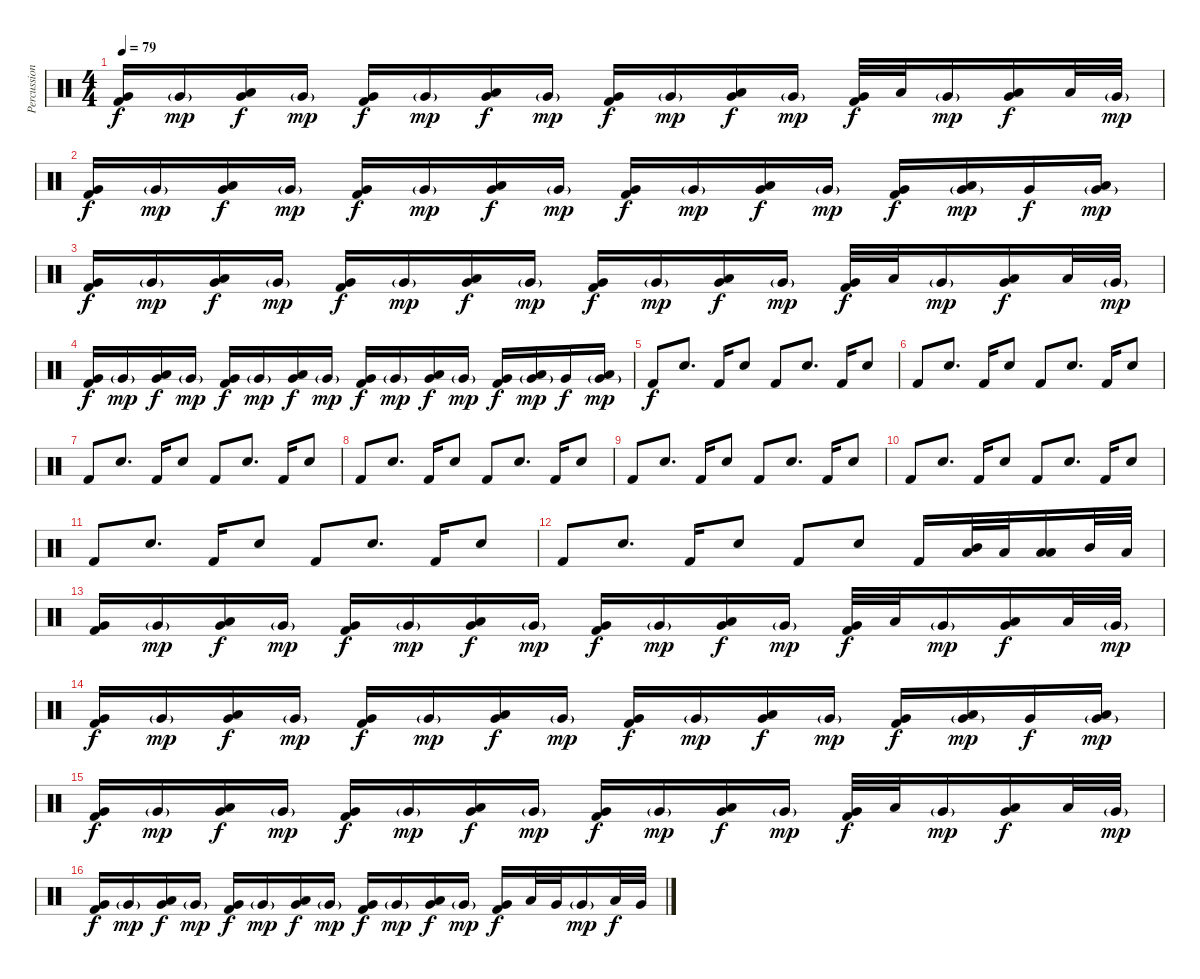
\track ("Percussion" "Percussion") {instrument percussion}
\staff {score}
\articulation defaults
\ts (4 4)
\tempo 79
\clef neutral
\ks c
("Very Low Tom (hit)" "Kick (hit) 2").16{dy f} "Very Low Tom (hit)"{g}.16{dy mp} ("Low Tom (hit)" "Very Low Tom (hit)").16{dy f} "Very Low Tom (hit)"{g}.16{dy mp} ("Very Low Tom (hit)" "Kick (hit) 2").16{dy f} "Very Low Tom (hit)"{g}.16{dy mp} ("Low Tom (hit)" "Very Low Tom (hit)").16{dy f} "Very Low Tom (hit)"{g}.16{dy mp} ("Very Low Tom (hit)" "Kick (hit) 2").16{dy f} "Very Low Tom (hit)"{g}.16{dy mp} ("Low Tom (hit)" "Very Low Tom (hit)").16{dy f} "Very Low Tom (hit)"{g}.16{dy mp} ("Very Low Tom (hit)" "Kick (hit) 2").32{dy f} "Low Tom (hit)".32 "Very Low Tom (hit)"{g}.16{dy mp} ("Low Tom (hit)" "Very Low Tom (hit)").16{dy f} "Low Tom (hit)".32 "Very Low Tom (hit)"{g}.32{dy mp} |
("Very Low Tom (hit)" "Kick (hit) 2").16{dy f} "Very Low Tom (hit)"{g}.16{dy mp} ("Low Tom (hit)" "Very Low Tom (hit)").16{dy f} "Very Low Tom (hit)"{g}.16{dy mp} ("Very Low Tom (hit)" "Kick (hit) 2").16{dy f} "Very Low Tom (hit)"{g}.16{dy mp} ("Low Tom (hit)" "Very Low Tom (hit)").16{dy f} "Very Low Tom (hit)"{g}.16{dy mp} ("Very Low Tom (hit)" "Kick (hit) 2").16{dy f} "Very Low Tom (hit)"{g}.16{dy mp} ("Low Tom (hit)" "Very Low Tom (hit)").16{dy f} "Very Low Tom (hit)"{g}.16{dy mp} ("Very Low Tom (hit)" "Kick (hit) 2").16{dy f} ("Low Tom (hit)" "Very Low Tom (hit)"{g}).16{dy mp} "Very Low Tom (hit)".16{dy f} ("Low Tom (hit)" "Very Low Tom (hit)"{g}).16{dy mp} |
("Very Low Tom (hit)" "Kick (hit) 2").16{dy f} "Very Low Tom (hit)"{g}.16{dy mp} ("Low Tom (hit)" "Very Low Tom (hit)").16{dy f} "Very Low Tom (hit)"{g}.16{dy mp} ("Very Low Tom (hit)" "Kick (hit) 2").16{dy f} "Very Low Tom (hit)"{g}.16{dy mp} ("Low Tom (hit)" "Very Low Tom (hit)").16{dy f} "Very Low Tom (hit)"{g}.16{dy mp} ("Very Low Tom (hit)" "Kick (hit) 2").16{dy f} "Very Low Tom (hit)"{g}.16{dy mp} ("Low Tom (hit)" "Very Low Tom (hit)").16{dy f} "Very Low Tom (hit)"{g}.16{dy mp} ("Very Low Tom (hit)" "Kick (hit) 2").32{dy f} "Low Tom (hit)".32 "Very Low Tom (hit)"{g}.16{dy mp} ("Low Tom (hit)" "Very Low Tom (hit)").16{dy f} "Low Tom (hit)".32 "Very Low Tom (hit)"{g}.32{dy mp} |
("Very Low Tom (hit)" "Kick (hit) 2").16{dy f} "Very Low Tom (hit)"{g}.16{dy mp} ("Low Tom (hit)" "Very Low Tom (hit)").16{dy f} "Very Low Tom (hit)"{g}.16{dy mp} ("Very Low Tom (hit)" "Kick (hit) 2").16{dy f} "Very Low Tom (hit)"{g}.16{dy mp} ("Low Tom (hit)" "Very Low Tom (hit)").16{dy f} "Very Low Tom (hit)"{g}.16{dy mp} ("Very Low Tom (hit)" "Kick (hit) 2").16{dy f} "Very Low Tom (hit)"{g}.16{dy mp} ("Low Tom (hit)" "Very Low Tom (hit)").16{dy f} "Very Low Tom (hit)"{g}.16{dy mp} ("Very Low Tom (hit)" "Kick (hit) 2").16{dy f} ("Low Tom (hit)" "Very Low Tom (hit)"{g}).16{dy mp} "Very Low Tom (hit)".16{dy f} ("Low Tom (hit)" "Very Low Tom (hit)"{g}).16{dy mp} |
"Kick (hit) 2".8{dy f} "Snare (hit) 2".8{d} "Kick (hit) 2".16 "Snare (hit) 2".8 "Kick (hit) 2".8 "Snare (hit) 2".8{d} "Kick (hit) 2".16 "Snare (hit) 2".8 |
"Kick (hit) 2".8 "Snare (hit) 2".8{d} "Kick (hit) 2".16 "Snare (hit) 2".8 "Kick (hit) 2".8 "Snare (hit) 2".8{d} "Kick (hit) 2".16 "Snare (hit) 2".8 |
"Kick (hit) 2".8 "Snare (hit) 2".8{d} "Kick (hit) 2".16 "Snare (hit) 2".8 "Kick (hit) 2".8 "Snare (hit) 2".8{d} "Kick (hit) 2".16 "Snare (hit) 2".8 |
"Kick (hit) 2".8 "Snare (hit) 2".8{d} "Kick (hit) 2".16 "Snare (hit) 2".8 "Kick (hit) 2".8 "Snare (hit) 2".8{d} "Kick (hit) 2".16 "Snare (hit) 2".8 |
"Kick (hit) 2".8 "Snare (hit) 2".8{d} "Kick (hit) 2".16 "Snare (hit) 2".8 "Kick (hit) 2".8 "Snare (hit) 2".8{d} "Kick (hit) 2".16 "Snare (hit) 2".8 |
"Kick (hit) 2".8 "Snare (hit) 2".8{d} "Kick (hit) 2".16 "Snare (hit) 2".8 "Kick (hit) 2".8 "Snare (hit) 2".8{d} "Kick (hit) 2".16 "Snare (hit) 2".8 |
"Kick (hit) 2".8 "Snare (hit) 2".8{d} "Kick (hit) 2".16 "Snare (hit) 2".8 "Kick (hit) 2".8 "Snare (hit) 2".8{d} "Kick (hit) 2".16 "Snare (hit) 2".8 |
"Kick (hit) 2".8 "Snare (hit) 2".8{d} "Kick (hit) 2".16 "Snare (hit) 2".8 "Kick (hit) 2".8 "Snare (hit) 2".8 "Kick (hit) 2".16 ("Mid Tom (hit)" "Low Tom (hit)").32 "Low Tom (hit)".32 ("Low Tom (hit)" "Low Tom (hit)").16 "Mid Tom (hit)".32 "Low Tom (hit)".32 |
("Very Low Tom (hit)" "Kick (hit) 2").16 "Very Low Tom (hit)"{g}.16{dy mp} ("Low Tom (hit)" "Very Low Tom (hit)").16{dy f} "Very Low Tom (hit)"{g}.16{dy mp} ("Very Low Tom (hit)" "Kick (hit) 2").16{dy f} "Very Low Tom (hit)"{g}.16{dy mp} ("Low Tom (hit)" "Very Low Tom (hit)").16{dy f} "Very Low Tom (hit)"{g}.16{dy mp} ("Very Low Tom (hit)" "Kick (hit) 2").16{dy f} "Very Low Tom (hit)"{g}.16{dy mp} ("Low Tom (hit)" "Very Low Tom (hit)").16{dy f} "Very Low Tom (hit)"{g}.16{dy mp} ("Very Low Tom (hit)" "Kick (hit) 2").32{dy f} "Low Tom (hit)".32 "Very Low Tom (hit)"{g}.16{dy mp} ("Low Tom (hit)" "Very Low Tom (hit)").16{dy f} "Low Tom (hit)".32 "Very Low Tom (hit)"{g}.32{dy mp} |
("Very Low Tom (hit)" "Kick (hit) 2").16{dy f} "Very Low Tom (hit)"{g}.16{dy mp} ("Low Tom (hit)" "Very Low Tom (hit)").16{dy f} "Very Low Tom (hit)"{g}.16{dy mp} ("Very Low Tom (hit)" "Kick (hit) 2").16{dy f} "Very Low Tom (hit)"{g}.16{dy mp} ("Low Tom (hit)" "Very Low Tom (hit)").16{dy f} "Very Low Tom (hit)"{g}.16{dy mp} ("Very Low Tom (hit)" "Kick (hit) 2").16{dy f} "Very Low Tom (hit)"{g}.16{dy mp} ("Low Tom (hit)" "Very Low Tom (hit)").16{dy f} "Very Low Tom (hit)"{g}.16{dy mp} ("Very Low Tom (hit)" "Kick (hit) 2").16{dy f} ("Low Tom (hit)" "Very Low Tom (hit)"{g}).16{dy mp} "Very Low Tom (hit)".16{dy f} ("Low Tom (hit)" "Very Low Tom (hit)"{g}).16{dy mp} |
("Very Low Tom (hit)" "Kick (hit) 2").16{dy f} "Very Low Tom (hit)"{g}.16{dy mp} ("Low Tom (hit)" "Very Low Tom (hit)").16{dy f} "Very Low Tom (hit)"{g}.16{dy mp} ("Very Low Tom (hit)" "Kick (hit) 2").16{dy f} "Very Low Tom (hit)"{g}.16{dy mp} ("Low Tom (hit)" "Very Low Tom (hit)").16{dy f} "Very Low Tom (hit)"{g}.16{dy mp} ("Very Low Tom (hit)" "Kick (hit) 2").16{dy f} "Very Low Tom (hit)"{g}.16{dy mp} ("Low Tom (hit)" "Very Low Tom (hit)").16{dy f} "Very Low Tom (hit)"{g}.16{dy mp} ("Very Low Tom (hit)" "Kick (hit) 2").32{dy f} "Low Tom (hit)".32 "Very Low Tom (hit)"{g}.16{dy mp} ("Low Tom (hit)" "Very Low Tom (hit)").16{dy f} "Low Tom (hit)".32 "Very Low Tom (hit)"{g}.32{dy mp} |
("Very Low Tom (hit)" "Kick (hit) 2").16{dy f} "Very Low Tom (hit)"{g}.16{dy mp} ("Low Tom (hit)" "Very Low Tom (hit)").16{dy f} "Very Low Tom (hit)"{g}.16{dy mp} ("Very Low Tom (hit)" "Kick (hit) 2").16{dy f} "Very Low Tom (hit)"{g}.16{dy mp} ("Low Tom (hit)" "Very Low Tom (hit)").16{dy f} "Very Low Tom (hit)"{g}.16{dy mp} ("Very Low Tom (hit)" "Kick (hit) 2").16{dy f} "Very Low Tom (hit)"{g}.16{dy mp} ("Low Tom (hit)" "Very Low Tom (hit)").16{dy f} "Very Low Tom (hit)"{g}.16{dy mp} ("Very Low Tom (hit)" "Kick (hit) 2").16{dy f} "Low Tom (hit)".32 "Very Low Tom (hit)".32 "Very Low Tom (hit)"{g}.16{dy mp} "Low Tom (hit)".32{dy f} "Very Low Tom (hit)".32
